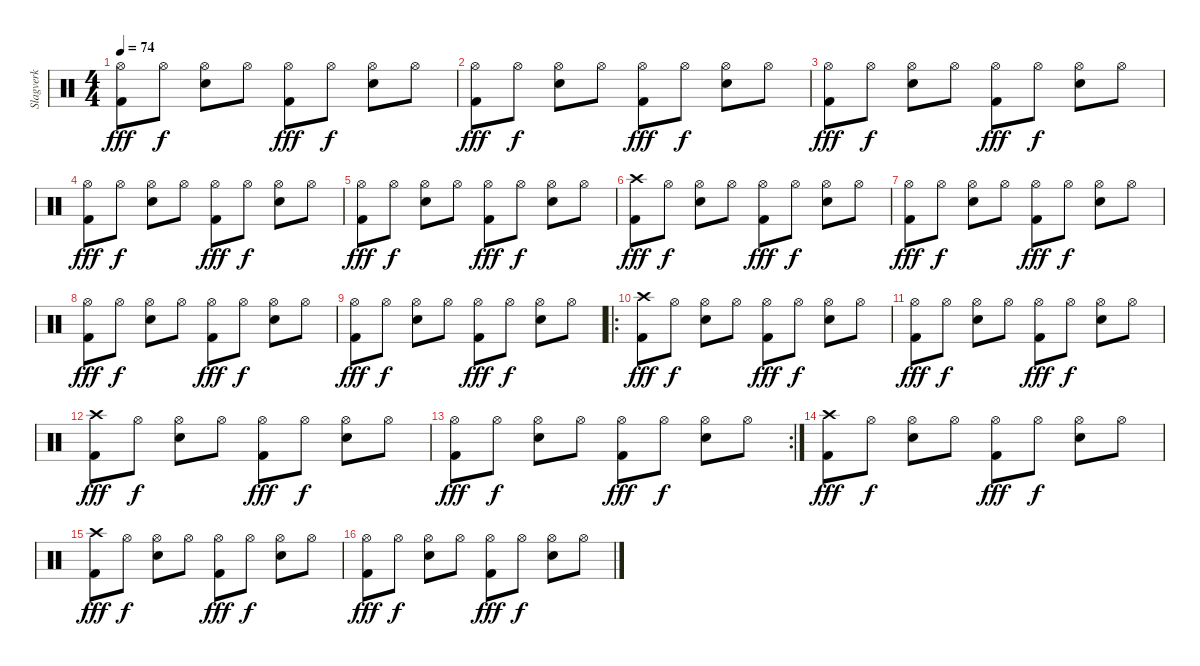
\track ("Slagverk" "Slagverk") {instrument percussion}
\staff {score}
\articulation defaults
\ts (4 4)
\tempo 74
\clef neutral
\ks c
("Hi-Hat (open)" "Kick (hit) 2").8{dy fff} "Hi-Hat (open)".8{dy f} ("Hi-Hat (open)" "Snare (hit) 2").8 "Hi-Hat (open)".8 ("Hi-Hat (open)" "Kick (hit) 2").8{dy fff} "Hi-Hat (open)".8{dy f} ("Hi-Hat (open)" "Snare (hit) 2").8 "Hi-Hat (open)".8 |
("Hi-Hat (open)" "Kick (hit) 2").8{dy fff} "Hi-Hat (open)".8{dy f} ("Hi-Hat (open)" "Snare (hit) 2").8 "Hi-Hat (open)".8 ("Hi-Hat (open)" "Kick (hit) 2").8{dy fff} "Hi-Hat (open)".8{dy f} ("Hi-Hat (open)" "Snare (hit) 2").8 "Hi-Hat (open)".8 |
("Hi-Hat (open)" "Kick (hit) 2").8{dy fff} "Hi-Hat (open)".8{dy f} ("Hi-Hat (open)" "Snare (hit) 2").8 "Hi-Hat (open)".8 ("Hi-Hat (open)" "Kick (hit) 2").8{dy fff} "Hi-Hat (open)".8{dy f} ("Hi-Hat (open)" "Snare (hit) 2").8 "Hi-Hat (open)".8 |
("Hi-Hat (open)" "Kick (hit) 2").8{dy fff} "Hi-Hat (open)".8{dy f} ("Hi-Hat (open)" "Snare (hit) 2").8 "Hi-Hat (open)".8 ("Hi-Hat (open)" "Kick (hit) 2").8{dy fff} "Hi-Hat (open)".8{dy f} ("Hi-Hat (open)" "Snare (hit) 2").8 "Hi-Hat (open)".8 |
("Hi-Hat (open)" "Kick (hit) 2").8{dy fff} "Hi-Hat (open)".8{dy f} ("Hi-Hat (open)" "Snare (hit) 2").8 "Hi-Hat (open)".8 ("Hi-Hat (open)" "Kick (hit) 2").8{dy fff} "Hi-Hat (open)".8{dy f} ("Hi-Hat (open)" "Snare (hit) 2").8 "Hi-Hat (open)".8 |
("Crash high (hit)" "Kick (hit) 2").8{dy fff} "Hi-Hat (open)".8{dy f} ("Hi-Hat (open)" "Snare (hit) 2").8 "Hi-Hat (open)".8 ("Hi-Hat (open)" "Kick (hit) 2").8{dy fff} "Hi-Hat (open)".8{dy f} ("Hi-Hat (open)" "Snare (hit) 2").8 "Hi-Hat (open)".8 |
("Hi-Hat (open)" "Kick (hit) 2").8{dy fff} "Hi-Hat (open)".8{dy f} ("Hi-Hat (open)" "Snare (hit) 2").8 "Hi-Hat (open)".8 ("Hi-Hat (open)" "Kick (hit) 2").8{dy fff} "Hi-Hat (open)".8{dy f} ("Hi-Hat (open)" "Snare (hit) 2").8 "Hi-Hat (open)".8 |
("Hi-Hat (open)" "Kick (hit) 2").8{dy fff} "Hi-Hat (open)".8{dy f} ("Hi-Hat (open)" "Snare (hit) 2").8 "Hi-Hat (open)".8 ("Hi-Hat (open)" "Kick (hit) 2").8{dy fff} "Hi-Hat (open)".8{dy f} ("Hi-Hat (open)" "Snare (hit) 2").8 "Hi-Hat (open)".8 |
("Hi-Hat (open)" "Kick (hit) 2").8{dy fff} "Hi-Hat (open)".8{dy f} ("Hi-Hat (open)" "Snare (hit) 2").8 "Hi-Hat (open)".8 ("Hi-Hat (open)" "Kick (hit) 2").8{dy fff} "Hi-Hat (open)".8{dy f} ("Hi-Hat (open)" "Snare (hit) 2").8 "Hi-Hat (open)".8 |
\ro
("Crash high (hit)" "Kick (hit) 2").8{dy fff} "Hi-Hat (open)".8{dy f} ("Hi-Hat (open)" "Snare (hit) 2").8 "Hi-Hat (open)".8 ("Hi-Hat (open)" "Kick (hit) 2").8{dy fff} "Hi-Hat (open)".8{dy f} ("Hi-Hat (open)" "Snare (hit) 2").8 "Hi-Hat (open)".8 |
("Hi-Hat (open)" "Kick (hit) 2").8{dy fff} "Hi-Hat (open)".8{dy f} ("Hi-Hat (open)" "Snare (hit) 2").8 "Hi-Hat (open)".8 ("Hi-Hat (open)" "Kick (hit) 2").8{dy fff} "Hi-Hat (open)".8{dy f} ("Hi-Hat (open)" "Snare (hit) 2").8 "Hi-Hat (open)".8 |
("Crash high (hit)" "Kick (hit) 2").8{dy fff} "Hi-Hat (open)".8{dy f} ("Hi-Hat (open)" "Snare (hit) 2").8 "Hi-Hat (open)".8 ("Hi-Hat (open)" "Kick (hit) 2").8{dy fff} "Hi-Hat (open)".8{dy f} ("Hi-Hat (open)" "Snare (hit) 2").8 "Hi-Hat (open)".8 |
\rc 2
("Hi-Hat (open)" "Kick (hit) 2").8{dy fff} "Hi-Hat (open)".8{dy f} ("Hi-Hat (open)" "Snare (hit) 2").8 "Hi-Hat (open)".8 ("Hi-Hat (open)" "Kick (hit) 2").8{dy fff} "Hi-Hat (open)".8{dy f} ("Hi-Hat (open)" "Snare (hit) 2").8 "Hi-Hat (open)".8 |
("Crash high (hit)" "Kick (hit) 2").8{dy fff} "Hi-Hat (open)".8{dy f} ("Hi-Hat (open)" "Snare (hit) 2").8 "Hi-Hat (open)".8 ("Hi-Hat (open)" "Kick (hit) 2").8{dy fff} "Hi-Hat (open)".8{dy f} ("Hi-Hat (open)" "Snare (hit) 2").8 "Hi-Hat (open)".8 |
("Crash high (hit)" "Kick (hit) 2").8{dy fff} "Hi-Hat (open)".8{dy f} ("Hi-Hat (open)" "Snare (hit) 2").8 "Hi-Hat (open)".8 ("Hi-Hat (open)" "Kick (hit) 2").8{dy fff} "Hi-Hat (open)".8{dy f} ("Hi-Hat (open)" "Snare (hit) 2").8 "Hi-Hat (open)".8 |
("Hi-Hat (open)" "Kick (hit) 2").8{dy fff} "Hi-Hat (open)".8{dy f} ("Hi-Hat (open)" "Snare (hit) 2").8 "Hi-Hat (open)".8 ("Hi-Hat (open)" "Kick (hit) 2").8{dy fff} "Hi-Hat (open)".8{dy f} ("Hi-Hat (open)" "Snare (hit) 2").8 "Hi-Hat (open)".8
